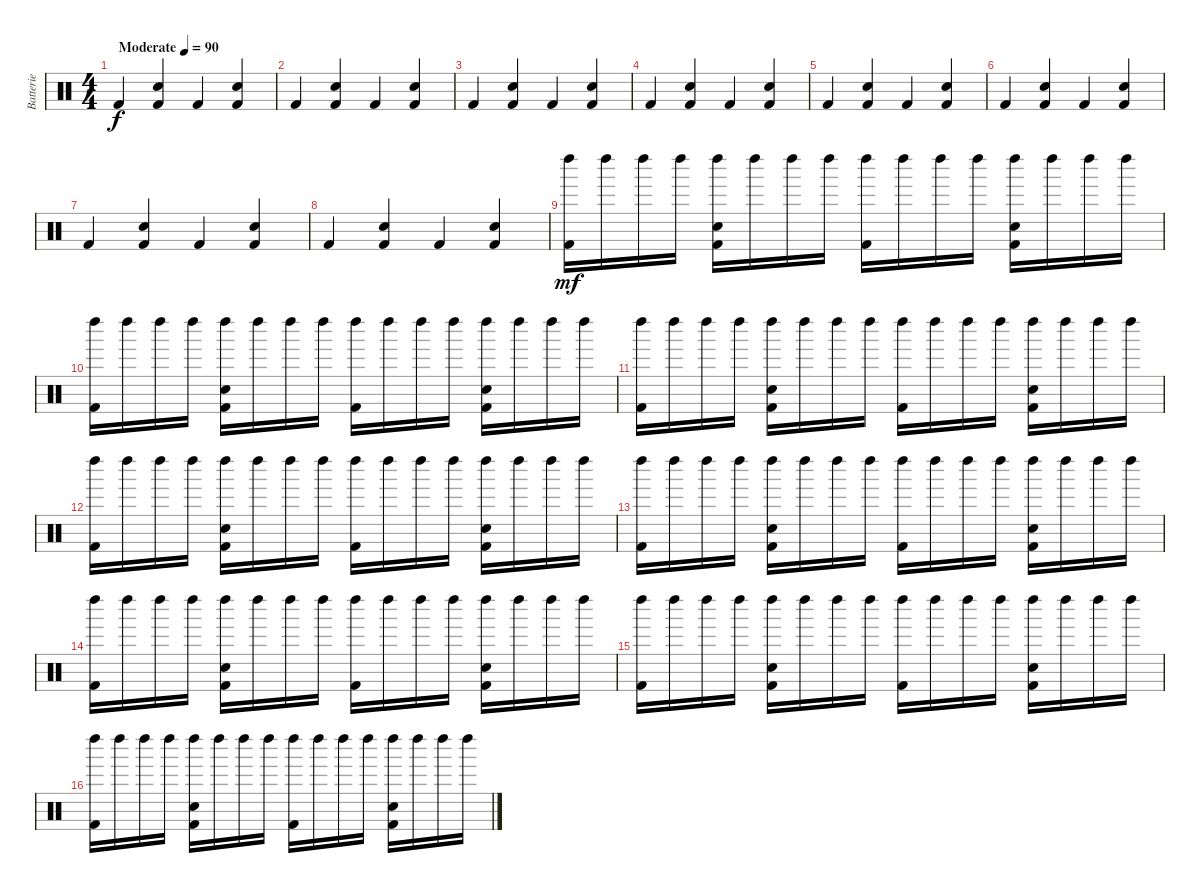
\track ("Batterie" "Batterie") {instrument percussion}
\staff {score}
\articulation defaults
\ts (4 4)
\tempo (90 "Moderate")
\clef neutral
\ks c "Kick (hit) 2".4{dy f}
("Snare (hit) 2" "Kick (hit) 2").4 "Kick (hit) 2".4 ("Snare (hit) 2" "Kick (hit) 2").4 |
"Kick (hit) 2".4 ("Snare (hit) 2" "Kick (hit) 2").4 "Kick (hit) 2".4 ("Snare (hit) 2" "Kick (hit) 2").4 |
"Kick (hit) 2".4 ("Snare (hit) 2" "Kick (hit) 2").4 "Kick (hit) 2".4 ("Snare (hit) 2" "Kick (hit) 2").4 |
"Kick (hit) 2".4 ("Snare (hit) 2" "Kick (hit) 2").4 "Kick (hit) 2".4 ("Snare (hit) 2" "Kick (hit) 2").4 |
"Kick (hit) 2".4 ("Snare (hit) 2" "Kick (hit) 2").4 "Kick (hit) 2".4 ("Snare (hit) 2" "Kick (hit) 2").4 |
"Kick (hit) 2".4 ("Snare (hit) 2" "Kick (hit) 2").4 "Kick (hit) 2".4 ("Snare (hit) 2" "Kick (hit) 2").4 |
"Kick (hit) 2".4 ("Snare (hit) 2" "Kick (hit) 2").4 "Kick (hit) 2".4 ("Snare (hit) 2" "Kick (hit) 2").4 |
"Kick (hit) 2".4 ("Snare (hit) 2" "Kick (hit) 2").4 "Kick (hit) 2".4 ("Snare (hit) 2" "Kick (hit) 2").4 |
("Left Maraca (hit)" "Kick (hit) 2").16{dy mf} "Left Maraca (hit)".16 "Left Maraca (hit)".16 "Left Maraca (hit)".16 ("Left Maraca (hit)" "Snare (hit) 2" "Kick (hit) 2").16 "Left Maraca (hit)".16 "Left Maraca (hit)".16 "Left Maraca (hit)".16 ("Left Maraca (hit)" "Kick (hit) 2").16 "Left Maraca (hit)".16 "Left Maraca (hit)".16 "Left Maraca (hit)".16 ("Left Maraca (hit)" "Snare (hit) 2" "Kick (hit) 2").16 "Left Maraca (hit)".16 "Left Maraca (hit)".16 "Left Maraca (hit)".16 |
("Left Maraca (hit)" "Kick (hit) 2").16 "Left Maraca (hit)".16 "Left Maraca (hit)".16 "Left Maraca (hit)".16 ("Left Maraca (hit)" "Snare (hit) 2" "Kick (hit) 2").16 "Left Maraca (hit)".16 "Left Maraca (hit)".16 "Left Maraca (hit)".16 ("Left Maraca (hit)" "Kick (hit) 2").16 "Left Maraca (hit)".16 "Left Maraca (hit)".16 "Left Maraca (hit)".16 ("Left Maraca (hit)" "Snare (hit) 2" "Kick (hit) 2").16 "Left Maraca (hit)".16 "Left Maraca (hit)".16 "Left Maraca (hit)".16 |
("Left Maraca (hit)" "Kick (hit) 2").16 "Left Maraca (hit)".16 "Left Maraca (hit)".16 "Left Maraca (hit)".16 ("Left Maraca (hit)" "Snare (hit) 2" "Kick (hit) 2").16 "Left Maraca (hit)".16 "Left Maraca (hit)".16 "Left Maraca (hit)".16 ("Left Maraca (hit)" "Kick (hit) 2").16 "Left Maraca (hit)".16 "Left Maraca (hit)".16 "Left Maraca (hit)".16 ("Left Maraca (hit)" "Snare (hit) 2" "Kick (hit) 2").16 "Left Maraca (hit)".16 "Left Maraca (hit)".16 "Left Maraca (hit)".16 |
("Left Maraca (hit)" "Kick (hit) 2").16 "Left Maraca (hit)".16 "Left Maraca (hit)".16 "Left Maraca (hit)".16 ("Left Maraca (hit)" "Snare (hit) 2" "Kick (hit) 2").16 "Left Maraca (hit)".16 "Left Maraca (hit)".16 "Left Maraca (hit)".16 ("Left Maraca (hit)" "Kick (hit) 2").16 "Left Maraca (hit)".16 "Left Maraca (hit)".16 "Left Maraca (hit)".16 ("Left Maraca (hit)" "Snare (hit) 2" "Kick (hit) 2").16 "Left Maraca (hit)".16 "Left Maraca (hit)".16 "Left Maraca (hit)".16 |
("Left Maraca (hit)" "Kick (hit) 2").16 "Left Maraca (hit)".16 "Left Maraca (hit)".16 "Left Maraca (hit)".16 ("Left Maraca (hit)" "Snare (hit) 2" "Kick (hit) 2").16 "Left Maraca (hit)".16 "Left Maraca (hit)".16 "Left Maraca (hit)".16 ("Left Maraca (hit)" "Kick (hit) 2").16 "Left Maraca (hit)".16 "Left Maraca (hit)".16 "Left Maraca (hit)".16 ("Left Maraca (hit)" "Snare (hit) 2" "Kick (hit) 2").16 "Left Maraca (hit)".16 "Left Maraca (hit)".16 "Left Maraca (hit)".16 |
("Left Maraca (hit)" "Kick (hit) 2").16 "Left Maraca (hit)".16 "Left Maraca (hit)".16 "Left Maraca (hit)".16 ("Left Maraca (hit)" "Snare (hit) 2" "Kick (hit) 2").16 "Left Maraca (hit)".16 "Left Maraca (hit)".16 "Left Maraca (hit)".16 ("Left Maraca (hit)" "Kick (hit) 2").16 "Left Maraca (hit)".16 "Left Maraca (hit)".16 "Left Maraca (hit)".16 ("Left Maraca (hit)" "Snare (hit) 2" "Kick (hit) 2").16 "Left Maraca (hit)".16 "Left Maraca (hit)".16 "Left Maraca (hit)".16 |
("Left Maraca (hit)" "Kick (hit) 2").16 "Left Maraca (hit)".16 "Left Maraca (hit)".16 "Left Maraca (hit)".16 ("Left Maraca (hit)" "Snare (hit) 2" "Kick (hit) 2").16 "Left Maraca (hit)".16 "Left Maraca (hit)".16 "Left Maraca (hit)".16 ("Left Maraca (hit)" "Kick (hit) 2").16 "Left Maraca (hit)".16 "Left Maraca (hit)".16 "Left Maraca (hit)".16 ("Left Maraca (hit)" "Snare (hit) 2" "Kick (hit) 2").16 "Left Maraca (hit)".16 "Left Maraca (hit)".16 "Left Maraca (hit)".16 |
("Left Maraca (hit)" "Kick (hit) 2").16 "Left Maraca (hit)".16 "Left Maraca (hit)".16 "Left Maraca (hit)".16 ("Left Maraca (hit)" "Snare (hit) 2" "Kick (hit) 2").16 "Left Maraca (hit)".16 "Left Maraca (hit)".16 "Left Maraca (hit)".16 ("Left Maraca (hit)" "Kick (hit) 2").16 "Left Maraca (hit)".16 "Left Maraca (hit)".16 "Left Maraca (hit)".16 ("Left Maraca (hit)" "Snare (hit) 2" "Kick (hit) 2").16 "Left Maraca (hit)".16 "Left Maraca (hit)".16 "Left Maraca (hit)".16
